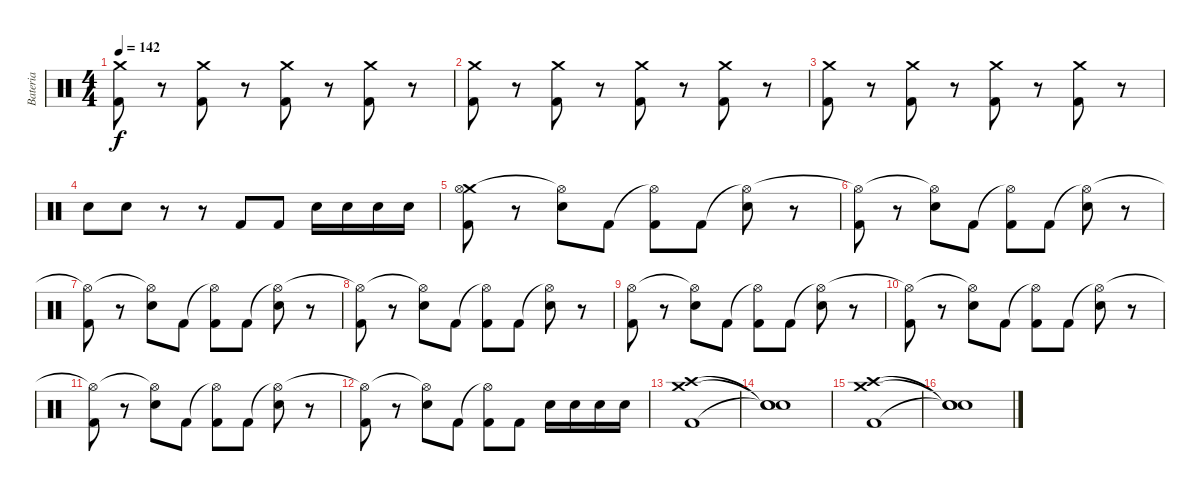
\track ("Bateria" "Bateria") {instrument percussion}
\staff {score}
\articulation defaults
\ts (4 4)
\tempo 142
\clef neutral
\ks c
("Crash medium (hit)" "Kick (hit) 2").8{dy f} r.8 ("Crash medium (hit)" "Kick (hit) 2").8 r.8 ("Crash medium (hit)" "Kick (hit) 2").8 r.8 ("Crash medium (hit)" "Kick (hit) 2").8 r.8 |
("Crash medium (hit)" "Kick (hit) 2").8 r.8 ("Crash medium (hit)" "Kick (hit) 2").8 r.8 ("Crash medium (hit)" "Kick (hit) 2").8 r.8 ("Crash medium (hit)" "Kick (hit) 2").8 r.8 |
("Crash medium (hit)" "Kick (hit) 2").8 r.8 ("Crash medium (hit)" "Kick (hit) 2").8 r.8 ("Crash medium (hit)" "Kick (hit) 2").8 r.8 ("Crash medium (hit)" "Kick (hit) 2").8 r.8 |
"Electric Snare (hit)".8 "Electric Snare (hit)".8 r.8 r.8 "Kick (hit) 2".8 "Kick (hit) 2".8 "Electric Snare (hit)".16 "Electric Snare (hit)".16 "Electric Snare (hit)".16 "Electric Snare (hit)".16 |
("Crash medium (hit)" "Hi-Hat (open)" "Kick (hit) 2").8 r.8 ("Hi-Hat (open)"{t} "Electric Snare (hit)").8 "Kick (hit) 2".8 ("Hi-Hat (open)"{t} "Kick (hit) 2").8 "Kick (hit) 2".8 ("Hi-Hat (open)"{t} "Electric Snare (hit)").8 r.8 |
("Hi-Hat (open)"{t} "Kick (hit) 2").8 r.8 ("Hi-Hat (open)"{t} "Electric Snare (hit)").8 "Kick (hit) 2".8 ("Hi-Hat (open)"{t} "Kick (hit) 2").8 "Kick (hit) 2".8 ("Hi-Hat (open)"{t} "Electric Snare (hit)").8 r.8 |
("Hi-Hat (open)"{t} "Kick (hit) 2").8 r.8 ("Hi-Hat (open)"{t} "Electric Snare (hit)").8 "Kick (hit) 2".8 ("Hi-Hat (open)"{t} "Kick (hit) 2").8 "Kick (hit) 2".8 ("Hi-Hat (open)"{t} "Electric Snare (hit)").8 r.8 |
("Hi-Hat (open)"{t} "Kick (hit) 2").8 r.8 ("Hi-Hat (open)"{t} "Electric Snare (hit)").8 "Kick (hit) 2".8 ("Hi-Hat (open)"{t} "Kick (hit) 2").8 "Kick (hit) 2".8 ("Hi-Hat (open)"{t} "Electric Snare (hit)").8 r.8 |
("Hi-Hat (open)" "Kick (hit) 2").8 r.8 ("Hi-Hat (open)"{t} "Electric Snare (hit)").8 "Kick (hit) 2".8 ("Hi-Hat (open)"{t} "Kick (hit) 2").8 "Kick (hit) 2".8 ("Hi-Hat (open)"{t} "Electric Snare (hit)").8 r.8 |
("Hi-Hat (open)"{t} "Kick (hit) 2").8 r.8 ("Hi-Hat (open)"{t} "Electric Snare (hit)").8 "Kick (hit) 2".8 ("Hi-Hat (open)"{t} "Kick (hit) 2").8 "Kick (hit) 2".8 ("Hi-Hat (open)"{t} "Electric Snare (hit)").8 r.8 |
("Hi-Hat (open)"{t} "Kick (hit) 2").8 r.8 ("Hi-Hat (open)"{t} "Electric Snare (hit)").8 "Kick (hit) 2".8 ("Hi-Hat (open)"{t} "Kick (hit) 2").8 "Kick (hit) 2".8 ("Hi-Hat (open)"{t} "Electric Snare (hit)").8 r.8 |
("Hi-Hat (open)"{t} "Kick (hit) 2").8 r.8 ("Hi-Hat (open)"{t} "Electric Snare (hit)").8 "Kick (hit) 2".8 ("Hi-Hat (open)"{t} "Kick (hit) 2").8 "Kick (hit) 2".8 "Electric Snare (hit)".16 "Electric Snare (hit)".16 "Electric Snare (hit)".16 "Electric Snare (hit)".16 |
("Crash medium (hit)" "Crash high (hit)" "Kick (hit) 2").1 |
("Snare (hit)"{t} "Snare (hit)"{t} "Snare (hit)"{t}).1 |
("Crash medium (hit)" "Crash high (hit)" "Kick (hit) 2").1 |
("Snare (hit)"{t} "Snare (hit)"{t} "Snare (hit)"{t}).1
